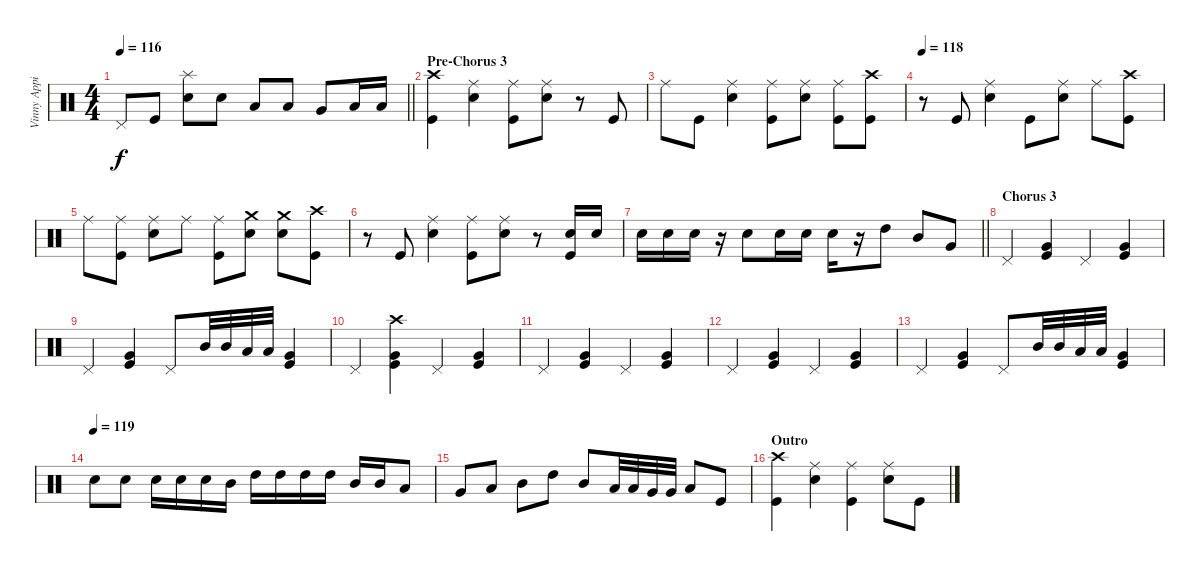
\track ("Vinny Appice" "Vinny Appi") {instrument percussion}
\staff {score}
\articulation defaults
\ts (4 4)
\tempo 116
\clef neutral
\barLineRight lightlight
\ks c "Pedal Hi-Hat (hit)".8{dy f} "Kick (hit)".8
("Splash (hit)" "Snare (hit) 2").8 "Snare (hit) 2".8 "Low Tom (hit)".8 "Low Tom (hit)".8 "Very Low Tom (hit)".8 "Low Floor Tom (hit)".16 "Low Floor Tom (hit)".16 |
\section ("" "Pre-Chorus 3")
("Kick (hit)" "Crash high (hit)").4 ("Ride (middle)" "Snare (hit) 2").4 ("Ride (middle)" "Kick (hit)").8 ("Ride (middle)" "Snare (hit) 2").8 r.8 "Kick (hit)".8 |
"Ride (middle)".8 "Kick (hit)".8 ("Ride (middle)" "Snare (hit) 2").4 ("Ride (middle)" "Kick (hit)").8 ("Ride (middle)" "Snare (hit) 2").8 ("Kick (hit)" "Ride (middle)").8 ("Crash high (hit)" "Kick (hit)").8 |
\tempo 118
r.8 "Kick (hit)".8 ("Ride (middle)" "Snare (hit) 2").4 "Kick (hit)".8 ("Ride (middle)" "Snare (hit) 2").8 "Ride (middle)".8 ("Kick (hit)" "Crash high (hit)").8 |
"Ride (middle)".8 ("Ride (middle)" "Kick (hit)").8 ("Ride (middle)" "Snare (hit) 2").8 "Ride (middle)".8 ("Ride (middle)" "Kick (hit)").8 ("Crash medium (hit)" "Snare (hit) 2").8 ("Crash medium (hit)" "Snare (hit) 2").8 ("Kick (hit)" "Crash high (hit)").8 |
r.8 "Kick (hit)".8 ("Ride (middle)" "Snare (hit) 2").4 ("Ride (middle)" "Kick (hit)").8 ("Ride (middle)" "Snare (hit) 2").8 r.8 ("Snare (hit) 2" "Kick (hit)").16 "Snare (hit) 2".16 |
\barLineRight lightlight "Snare (hit) 2".16 "Snare (hit) 2".16 "Snare (hit) 2".16
r.16 "Snare (hit) 2".8 "Snare (hit) 2".16 "Snare (hit) 2".16 "Snare (hit) 2".16 r.16 "High Tom (hit)".8 "Mid Tom (hit)".8 "Very Low Tom (hit)".8 |
\section ("" "Chorus 3")
"Pedal Hi-Hat (hit)".4 ("Kick (hit)" "Very Low Tom (hit)").4 "Pedal Hi-Hat (hit)".4 ("Kick (hit)" "Very Low Tom (hit)").4 |
"Pedal Hi-Hat (hit)".4 ("Kick (hit)" "Very Low Tom (hit)").4 "Pedal Hi-Hat (hit)".8 "Mid Tom (hit)".32 "Mid Tom (hit)".32 "Low Tom (hit)".32 "Low Tom (hit)".32 ("Kick (hit)" "Very Low Tom (hit)").4 |
"Pedal Hi-Hat (hit)".4 ("Crash high (hit)" "Kick (hit)" "Very Low Tom (hit)").4 "Pedal Hi-Hat (hit)".4 ("Kick (hit)" "Very Low Tom (hit)").4 |
"Pedal Hi-Hat (hit)".4 ("Kick (hit)" "Very Low Tom (hit)").4 "Pedal Hi-Hat (hit)".4 ("Very Low Tom (hit)" "Kick (hit)").4 |
"Pedal Hi-Hat (hit)".4 ("Kick (hit)" "Very Low Tom (hit)").4 "Pedal Hi-Hat (hit)".4 ("Kick (hit)" "Very Low Tom (hit)").4 |
"Pedal Hi-Hat (hit)".4 ("Kick (hit)" "Very Low Tom (hit)").4 "Pedal Hi-Hat (hit)".8 "Mid Tom (hit)".32 "Mid Tom (hit)".32 "Low Tom (hit)".32 "Low Tom (hit)".32 ("Kick (hit)" "Very Low Tom (hit)").4 |
\tempo (119)
"Snare (hit) 2".8 "Snare (hit) 2".8 "Snare (hit) 2".16 "Snare (hit) 2".16 "Snare (hit) 2".16 "Mid Tom (hit)".16 "High Tom (hit)".16 "High Tom (hit)".16 "High Tom (hit)".16 "High Tom (hit)".16 "Mid Tom (hit)".16 "Mid Tom (hit)".16 "Low Tom (hit)".8 |
"Very Low Tom (hit)".8 "Low Tom (hit)".8 "Mid Tom (hit)".8 "High Tom (hit)".8 "Mid Tom (hit)".8 "Low Tom (hit)".32 "Low Tom (hit)".32 "Very Low Tom (hit)".32 "Very Low Tom (hit)".32 "Low Floor Tom (hit)".8 "Kick (hit)".8 |
\section ("" "Outro")
("Crash high (hit)" "Kick (hit)").4 ("Ride (middle)" "Snare (hit) 2").4 ("Ride (middle)" "Kick (hit)").4 ("Ride (middle)" "Snare (hit) 2").8 "Kick (hit)".8
